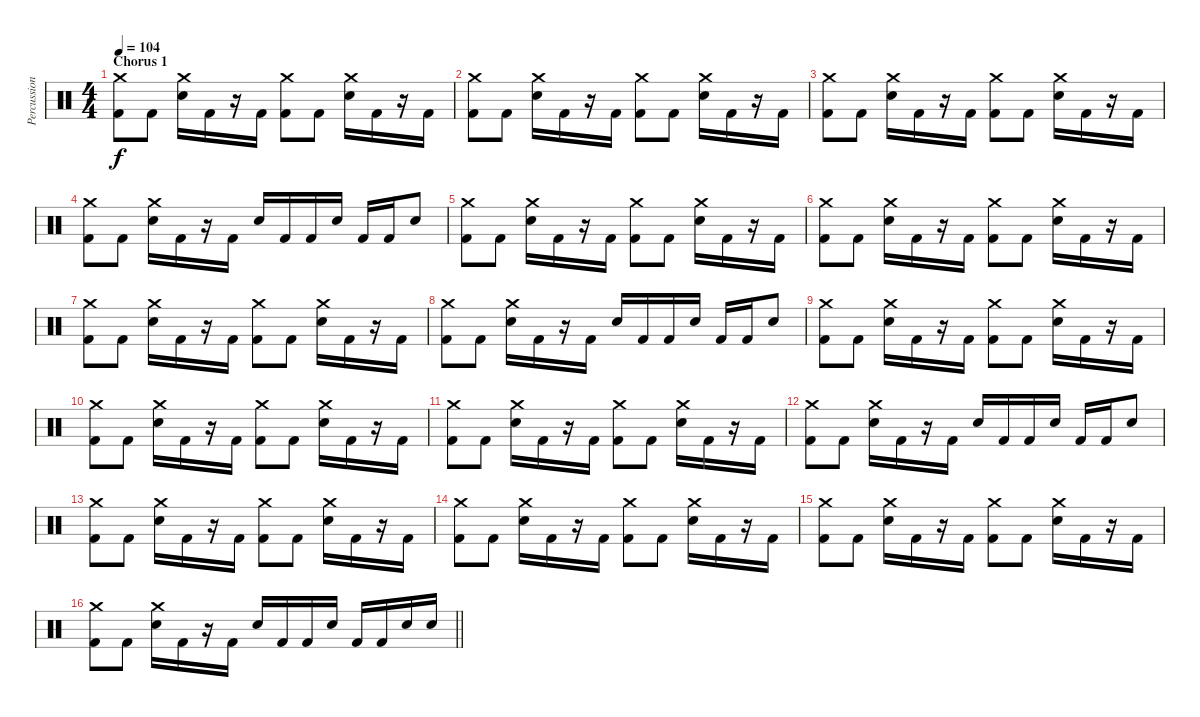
\track ("Percussioni" "Percussion") {instrument percussion}
\staff {score}
\articulation defaults
\ts (4 4)
\section ("" "Chorus 1")
\tempo 104
\clef neutral
\ks c
("Crash medium (hit)" "Kick (hit) 2").8{dy f} "Kick (hit) 2".8 ("Crash medium (hit)" "Electric Snare (hit)").16 "Kick (hit) 2".16 r.16 "Kick (hit) 2".16 ("Crash medium (hit)" "Kick (hit) 2").8 "Kick (hit) 2".8 ("Crash medium (hit)" "Electric Snare (hit)").16 "Kick (hit) 2".16 r.16 "Kick (hit) 2".16 |
("Crash medium (hit)" "Kick (hit) 2").8 "Kick (hit) 2".8 ("Crash medium (hit)" "Electric Snare (hit)").16 "Kick (hit) 2".16 r.16 "Kick (hit) 2".16 ("Crash medium (hit)" "Kick (hit) 2").8 "Kick (hit) 2".8 ("Crash medium (hit)" "Electric Snare (hit)").16 "Kick (hit) 2".16 r.16 "Kick (hit) 2".16 |
("Crash medium (hit)" "Kick (hit) 2").8 "Kick (hit) 2".8 ("Crash medium (hit)" "Electric Snare (hit)").16 "Kick (hit) 2".16 r.16 "Kick (hit) 2".16 ("Crash medium (hit)" "Kick (hit) 2").8 "Kick (hit) 2".8 ("Crash medium (hit)" "Electric Snare (hit)").16 "Kick (hit) 2".16 r.16 "Kick (hit) 2".16 |
("Crash medium (hit)" "Kick (hit) 2").8 "Kick (hit) 2".8 ("Crash medium (hit)" "Electric Snare (hit)").16 "Kick (hit) 2".16 r.16 "Kick (hit) 2".16 "Electric Snare (hit)".16 "Kick (hit) 2".16 "Kick (hit) 2".16 "Electric Snare (hit)".16 "Kick (hit) 2".16 "Kick (hit) 2".16 "Electric Snare (hit)".8 |
("Crash medium (hit)" "Kick (hit) 2").8 "Kick (hit) 2".8 ("Crash medium (hit)" "Electric Snare (hit)").16 "Kick (hit) 2".16 r.16 "Kick (hit) 2".16 ("Crash medium (hit)" "Kick (hit) 2").8 "Kick (hit) 2".8 ("Crash medium (hit)" "Electric Snare (hit)").16 "Kick (hit) 2".16 r.16 "Kick (hit) 2".16 |
("Crash medium (hit)" "Kick (hit) 2").8 "Kick (hit) 2".8 ("Crash medium (hit)" "Electric Snare (hit)").16 "Kick (hit) 2".16 r.16 "Kick (hit) 2".16 ("Crash medium (hit)" "Kick (hit) 2").8 "Kick (hit) 2".8 ("Crash medium (hit)" "Electric Snare (hit)").16 "Kick (hit) 2".16 r.16 "Kick (hit) 2".16 |
("Crash medium (hit)" "Kick (hit) 2").8 "Kick (hit) 2".8 ("Crash medium (hit)" "Electric Snare (hit)").16 "Kick (hit) 2".16 r.16 "Kick (hit) 2".16 ("Crash medium (hit)" "Kick (hit) 2").8 "Kick (hit) 2".8 ("Crash medium (hit)" "Electric Snare (hit)").16 "Kick (hit) 2".16 r.16 "Kick (hit) 2".16 |
("Crash medium (hit)" "Kick (hit) 2").8 "Kick (hit) 2".8 ("Crash medium (hit)" "Electric Snare (hit)").16 "Kick (hit) 2".16 r.16 "Kick (hit) 2".16 "Electric Snare (hit)".16 "Kick (hit) 2".16 "Kick (hit) 2".16 "Electric Snare (hit)".16 "Kick (hit) 2".16 "Kick (hit) 2".16 "Electric Snare (hit)".8 |
("Crash medium (hit)" "Kick (hit) 2").8 "Kick (hit) 2".8 ("Crash medium (hit)" "Electric Snare (hit)").16 "Kick (hit) 2".16 r.16 "Kick (hit) 2".16 ("Crash medium (hit)" "Kick (hit) 2").8 "Kick (hit) 2".8 ("Crash medium (hit)" "Electric Snare (hit)").16 "Kick (hit) 2".16 r.16 "Kick (hit) 2".16 |
("Crash medium (hit)" "Kick (hit) 2").8 "Kick (hit) 2".8 ("Crash medium (hit)" "Electric Snare (hit)").16 "Kick (hit) 2".16 r.16 "Kick (hit) 2".16 ("Crash medium (hit)" "Kick (hit) 2").8 "Kick (hit) 2".8 ("Crash medium (hit)" "Electric Snare (hit)").16 "Kick (hit) 2".16 r.16 "Kick (hit) 2".16 |
("Crash medium (hit)" "Kick (hit) 2").8 "Kick (hit) 2".8 ("Crash medium (hit)" "Electric Snare (hit)").16 "Kick (hit) 2".16 r.16 "Kick (hit) 2".16 ("Crash medium (hit)" "Kick (hit) 2").8 "Kick (hit) 2".8 ("Crash medium (hit)" "Electric Snare (hit)").16 "Kick (hit) 2".16 r.16 "Kick (hit) 2".16 |
("Crash medium (hit)" "Kick (hit) 2").8 "Kick (hit) 2".8 ("Crash medium (hit)" "Electric Snare (hit)").16 "Kick (hit) 2".16 r.16 "Kick (hit) 2".16 "Electric Snare (hit)".16 "Kick (hit) 2".16 "Kick (hit) 2".16 "Electric Snare (hit)".16 "Kick (hit) 2".16 "Kick (hit) 2".16 "Electric Snare (hit)".8 |
("Crash medium (hit)" "Kick (hit) 2").8 "Kick (hit) 2".8 ("Crash medium (hit)" "Electric Snare (hit)").16 "Kick (hit) 2".16 r.16 "Kick (hit) 2".16 ("Crash medium (hit)" "Kick (hit) 2").8 "Kick (hit) 2".8 ("Crash medium (hit)" "Electric Snare (hit)").16 "Kick (hit) 2".16 r.16 "Kick (hit) 2".16 |
("Crash medium (hit)" "Kick (hit) 2").8 "Kick (hit) 2".8 ("Crash medium (hit)" "Electric Snare (hit)").16 "Kick (hit) 2".16 r.16 "Kick (hit) 2".16 ("Crash medium (hit)" "Kick (hit) 2").8 "Kick (hit) 2".8 ("Crash medium (hit)" "Electric Snare (hit)").16 "Kick (hit) 2".16 r.16 "Kick (hit) 2".16 |
("Crash medium (hit)" "Kick (hit) 2").8 "Kick (hit) 2".8 ("Crash medium (hit)" "Electric Snare (hit)").16 "Kick (hit) 2".16 r.16 "Kick (hit) 2".16 ("Crash medium (hit)" "Kick (hit) 2").8 "Kick (hit) 2".8 ("Crash medium (hit)" "Electric Snare (hit)").16 "Kick (hit) 2".16 r.16 "Kick (hit) 2".16 |
\barLineRight lightlight
("Crash medium (hit)" "Kick (hit) 2").8 "Kick (hit) 2".8 ("Crash medium (hit)" "Electric Snare (hit)").16 "Kick (hit) 2".16 r.16 "Kick (hit) 2".16 "Electric Snare (hit)".16 "Kick (hit) 2".16 "Kick (hit) 2".16 "Electric Snare (hit)".16 "Kick (hit) 2".16 "Kick (hit) 2".16 "Electric Snare (hit)".16 "Electric Snare (hit)".16
